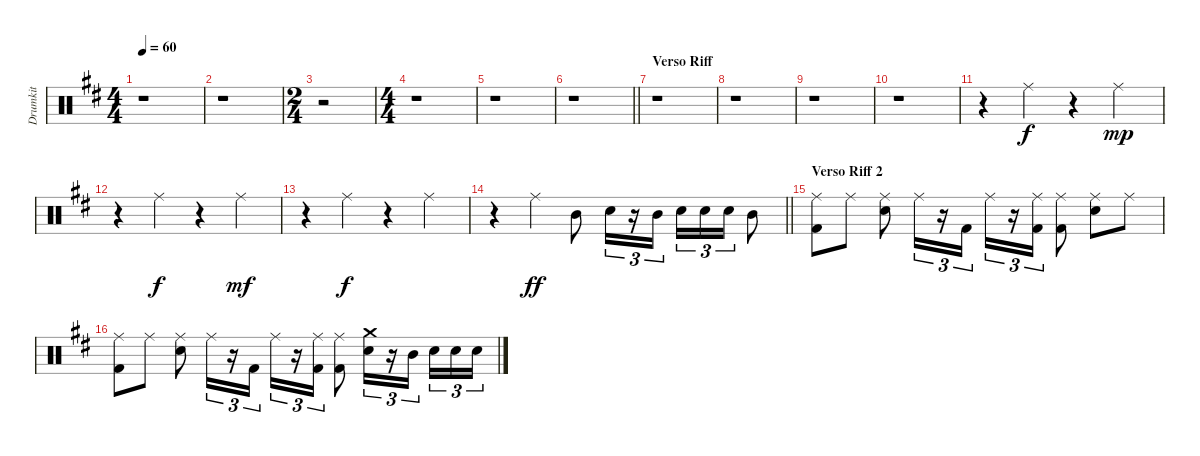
\track ("Drumkit" "Drumkit") {instrument percussion}
\staff {score}
\articulation defaults
\ts (4 4)
\tempo 60
\clef neutral
\ks d
r.1{dy f} |
r.1 |
\ts (2 4)
r.2 |
\ts (4 4)
r.1 |
r.1 |
\barLineRight lightlight
r.1 |
\section ("" "Verso Riff")
r.1 |
r.1 |
r.1 |
r.1 |
r.4 "Ride (middle)".4 r.4 "Ride (middle)".4{dy mp} |
r.4 "Ride (middle)".4{dy f} r.4 "Ride (middle)".4{dy mf} |
r.4 "Ride (middle)".4{dy f} r.4 "Ride (middle)".4 |
\barLineRight lightlight
r.4 "Ride (middle)".4{dy ff} "Mid Tom (hit)".8 "Snare (hit) 2".16{tu (3 2)} r.16{tu (3 2)} "Mid Tom (hit)".16{tu (3 2)} "Snare (hit) 2".16{tu (3 2)} "Snare (hit) 2".16{tu (3 2)} "Snare (hit) 2".16{tu (3 2)} "Mid Tom (hit)".8 |
\section ("" "Verso Riff 2")
("Kick (hit) 2" "Ride (middle)").8 "Ride (middle)".8 ("Snare (hit) 2" "Ride (middle)").8 "Ride (middle)".16{tu (3 2)} r.16{tu (3 2)} "Kick (hit) 2".16{tu (3 2)} "Ride (middle)".16{tu (3 2)} r.16{tu (3 2)} ("Kick (hit) 2" "Ride (middle)").16{tu (3 2)} ("Kick (hit) 2" "Ride (middle)").8 ("Snare (hit) 2" "Ride (middle)").8 "Ride (middle)".8 |
("Kick (hit) 2" "Ride (middle)").8 "Ride (middle)".8 ("Snare (hit) 2" "Ride (middle)").8 "Ride (middle)".16{tu (3 2)} r.16{tu (3 2)} "Kick (hit) 2".16{tu (3 2)} "Ride (middle)".16{tu (3 2)} r.16{tu (3 2)} ("Kick (hit) 2" "Ride (middle)").16{tu (3 2)} ("Kick (hit) 2" "Ride (middle)").8 ("Snare (hit) 2" "Crash medium (hit)").16{tu (3 2)} r.16{tu (3 2)} "Mid Tom (hit)".16{tu (3 2)} "Snare (hit) 2".16{tu (3 2)} "Snare (hit) 2".16{tu (3 2)} "Snare (hit) 2".16{tu (3 2)}
